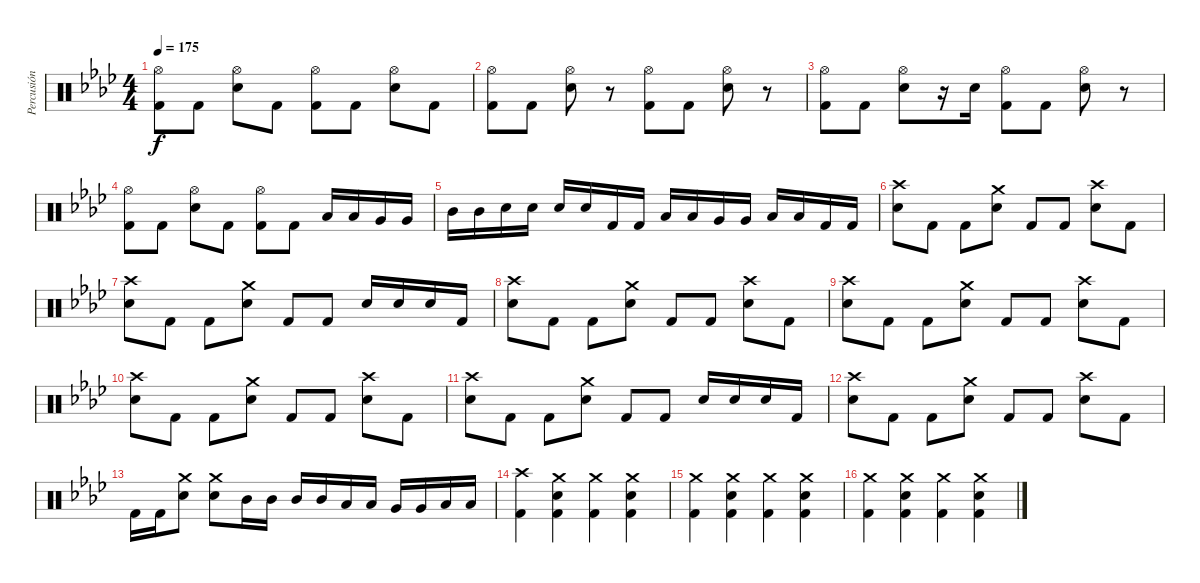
\track ("Percusión" "Percusión") {instrument percussion}
\staff {score}
\articulation defaults
\ts (4 4)
\tempo 175
\clef neutral
\ks fminor
("Kick (hit) 2" "Hi-Hat (open)").8{dy f} "Kick (hit) 2".8 ("Snare (hit) 2" "Hi-Hat (open)").8 "Kick (hit) 2".8 ("Kick (hit) 2" "Hi-Hat (open)").8 "Kick (hit) 2".8 ("Snare (hit) 2" "Hi-Hat (open)").8 "Kick (hit) 2".8 |
("Kick (hit) 2" "Hi-Hat (open)").8 "Kick (hit) 2".8 ("Snare (hit) 2" "Hi-Hat (open)").8 r.8 ("Kick (hit) 2" "Hi-Hat (open)").8 "Kick (hit) 2".8 ("Snare (hit) 2" "Hi-Hat (open)").8 r.8 |
("Kick (hit) 2" "Hi-Hat (open)").8 "Kick (hit) 2".8 ("Snare (hit) 2" "Hi-Hat (open)").8 r.16 "Snare (hit) 2".16 ("Kick (hit) 2" "Hi-Hat (open)").8 "Kick (hit) 2".8 ("Snare (hit) 2" "Hi-Hat (open)").8 r.8 |
("Kick (hit) 2" "Hi-Hat (open)").8 "Kick (hit) 2".8 ("Snare (hit) 2" "Hi-Hat (open)").8 "Kick (hit) 2".8 ("Kick (hit) 2" "Hi-Hat (open)").8 "Kick (hit) 2".8 "Low Tom (hit)".16 "Low Tom (hit)".16 "Very Low Tom (hit)".16 "Very Low Tom (hit)".16 |
"Mid Tom (hit)".16 "Mid Tom (hit)".16 "Snare (hit) 2".16 "Snare (hit) 2".16 "Snare (hit) 2".16 "Snare (hit) 2".16 "Kick (hit) 2".16 "Kick (hit) 2".16 "Low Tom (hit)".16 "Low Tom (hit)".16 "Very Low Tom (hit)".16 "Very Low Tom (hit)".16 "Low Floor Tom (hit)".16 "Low Floor Tom (hit)".16 "Kick (hit) 2".16 "Kick (hit) 2".16 |
("Snare (hit) 2" "Crash high (hit)").8 "Kick (hit) 2".8 "Kick (hit) 2".8 ("Snare (hit) 2" "Crash medium (hit)").8 "Kick (hit) 2".8 "Kick (hit) 2".8 ("Snare (hit) 2" "Crash high (hit)").8 "Kick (hit) 2".8 |
("Snare (hit) 2" "Crash high (hit)").8 "Kick (hit) 2".8 "Kick (hit) 2".8 ("Snare (hit) 2" "Crash medium (hit)").8 "Kick (hit) 2".8 "Kick (hit) 2".8 "Snare (hit) 2".16 "Snare (hit) 2".16 "Snare (hit) 2".16 "Kick (hit) 2".16 |
("Snare (hit) 2" "Crash high (hit)").8 "Kick (hit) 2".8 "Kick (hit) 2".8 ("Snare (hit) 2" "Crash medium (hit)").8 "Kick (hit) 2".8 "Kick (hit) 2".8 ("Snare (hit) 2" "Crash high (hit)").8 "Kick (hit) 2".8 |
("Snare (hit) 2" "Crash high (hit)").8 "Kick (hit) 2".8 "Kick (hit) 2".8 ("Snare (hit) 2" "Crash medium (hit)").8 "Kick (hit) 2".8 "Kick (hit) 2".8 ("Snare (hit) 2" "Crash high (hit)").8 "Kick (hit) 2".8 |
("Snare (hit) 2" "Crash high (hit)").8 "Kick (hit) 2".8 "Kick (hit) 2".8 ("Snare (hit) 2" "Crash medium (hit)").8 "Kick (hit) 2".8 "Kick (hit) 2".8 ("Snare (hit) 2" "Crash high (hit)").8 "Kick (hit) 2".8 |
("Snare (hit) 2" "Crash high (hit)").8 "Kick (hit) 2".8 "Kick (hit) 2".8 ("Snare (hit) 2" "Crash medium (hit)").8 "Kick (hit) 2".8 "Kick (hit) 2".8 "Snare (hit) 2".16 "Snare (hit) 2".16 "Snare (hit) 2".16 "Kick (hit) 2".16 |
("Snare (hit) 2" "Crash high (hit)").8 "Kick (hit) 2".8 "Kick (hit) 2".8 ("Snare (hit) 2" "Crash medium (hit)").8 "Kick (hit) 2".8 "Kick (hit) 2".8 ("Snare (hit) 2" "Crash high (hit)").8 "Kick (hit) 2".8 |
"Kick (hit) 2".16 "Kick (hit) 2".16 ("Snare (hit) 2" "Crash medium (hit)").8 ("Snare (hit) 2" "Crash medium (hit)").8 "Mid Tom (hit)".16 "Mid Tom (hit)".16 "Mid Tom (hit)".16 "Mid Tom (hit)".16 "Low Tom (hit)".16 "Low Tom (hit)".16 "Very Low Tom (hit)".16 "Very Low Tom (hit)".16 "Low Floor Tom (hit)".16 "Low Floor Tom (hit)".16 |
("Kick (hit) 2" "Crash high (hit)").4 ("Kick (hit) 2" "Snare (hit) 2" "Crash medium (hit)").4 ("Kick (hit) 2" "Crash medium (hit)").4 ("Kick (hit) 2" "Snare (hit) 2" "Crash medium (hit)").4 |
("Kick (hit) 2" "Crash medium (hit)").4 ("Kick (hit) 2" "Snare (hit) 2" "Crash medium (hit)").4 ("Kick (hit) 2" "Crash medium (hit)").4 ("Kick (hit) 2" "Snare (hit) 2" "Crash medium (hit)").4 |
("Kick (hit) 2" "Crash medium (hit)").4 ("Kick (hit) 2" "Snare (hit) 2" "Crash medium (hit)").4 ("Kick (hit) 2" "Crash medium (hit)").4 ("Kick (hit) 2" "Snare (hit) 2" "Crash medium (hit)").4
